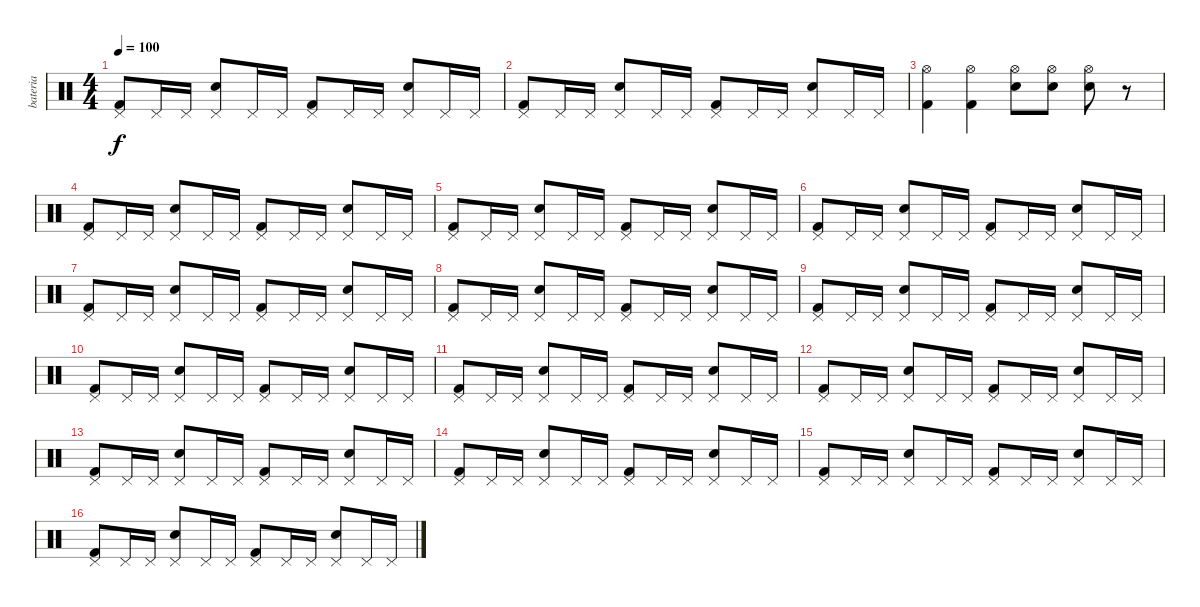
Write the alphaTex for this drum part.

\track ("bateria" "bateria") {instrument percussion}
\staff {score}
\articulation defaults
\ts (4 4)
\tempo 100
\clef neutral
\ks c
("Pedal Hi-Hat (hit)" "Kick (hit) 2").8{dy f} "Pedal Hi-Hat (hit)".16 "Pedal Hi-Hat (hit)".16 ("Pedal Hi-Hat (hit)" "Snare (hit) 2").8 "Pedal Hi-Hat (hit)".16 "Pedal Hi-Hat (hit)".16 ("Pedal Hi-Hat (hit)" "Kick (hit) 2").8 "Pedal Hi-Hat (hit)".16 "Pedal Hi-Hat (hit)".16 ("Pedal Hi-Hat (hit)" "Snare (hit) 2").8 "Pedal Hi-Hat (hit)".16 "Pedal Hi-Hat (hit)".16 |
("Pedal Hi-Hat (hit)" "Kick (hit) 2").8 "Pedal Hi-Hat (hit)".16 "Pedal Hi-Hat (hit)".16 ("Pedal Hi-Hat (hit)" "Snare (hit) 2").8 "Pedal Hi-Hat (hit)".16 "Pedal Hi-Hat (hit)".16 ("Pedal Hi-Hat (hit)" "Kick (hit) 2").8 "Pedal Hi-Hat (hit)".16 "Pedal Hi-Hat (hit)".16 ("Pedal Hi-Hat (hit)" "Snare (hit) 2").8 "Pedal Hi-Hat (hit)".16 "Pedal Hi-Hat (hit)".16 |
("Hi-Hat (open)" "Kick (hit) 2").4 ("Hi-Hat (open)" "Kick (hit) 2").4 ("Snare (hit) 2" "Hi-Hat (open)").8 ("Snare (hit) 2" "Hi-Hat (open)").8 ("Snare (hit) 2" "Hi-Hat (open)").8 r.8 |
\section ("" "")
("Pedal Hi-Hat (hit)" "Kick (hit) 2").8 "Pedal Hi-Hat (hit)".16 "Pedal Hi-Hat (hit)".16 ("Pedal Hi-Hat (hit)" "Snare (hit) 2").8 "Pedal Hi-Hat (hit)".16 "Pedal Hi-Hat (hit)".16 ("Pedal Hi-Hat (hit)" "Kick (hit) 2").8 "Pedal Hi-Hat (hit)".16 "Pedal Hi-Hat (hit)".16 ("Pedal Hi-Hat (hit)" "Snare (hit) 2").8 "Pedal Hi-Hat (hit)".16 "Pedal Hi-Hat (hit)".16 |
("Pedal Hi-Hat (hit)" "Kick (hit) 2").8 "Pedal Hi-Hat (hit)".16 "Pedal Hi-Hat (hit)".16 ("Pedal Hi-Hat (hit)" "Snare (hit) 2").8 "Pedal Hi-Hat (hit)".16 "Pedal Hi-Hat (hit)".16 ("Pedal Hi-Hat (hit)" "Kick (hit) 2").8 "Pedal Hi-Hat (hit)".16 "Pedal Hi-Hat (hit)".16 ("Pedal Hi-Hat (hit)" "Snare (hit) 2").8 "Pedal Hi-Hat (hit)".16 "Pedal Hi-Hat (hit)".16 |
("Pedal Hi-Hat (hit)" "Kick (hit) 2").8 "Pedal Hi-Hat (hit)".16 "Pedal Hi-Hat (hit)".16 ("Pedal Hi-Hat (hit)" "Snare (hit) 2").8 "Pedal Hi-Hat (hit)".16 "Pedal Hi-Hat (hit)".16 ("Pedal Hi-Hat (hit)" "Kick (hit) 2").8 "Pedal Hi-Hat (hit)".16 "Pedal Hi-Hat (hit)".16 ("Pedal Hi-Hat (hit)" "Snare (hit) 2").8 "Pedal Hi-Hat (hit)".16 "Pedal Hi-Hat (hit)".16 |
("Pedal Hi-Hat (hit)" "Kick (hit) 2").8 "Pedal Hi-Hat (hit)".16 "Pedal Hi-Hat (hit)".16 ("Pedal Hi-Hat (hit)" "Snare (hit) 2").8 "Pedal Hi-Hat (hit)".16 "Pedal Hi-Hat (hit)".16 ("Pedal Hi-Hat (hit)" "Kick (hit) 2").8 "Pedal Hi-Hat (hit)".16 "Pedal Hi-Hat (hit)".16 ("Pedal Hi-Hat (hit)" "Snare (hit) 2").8 "Pedal Hi-Hat (hit)".16 "Pedal Hi-Hat (hit)".16 |
("Pedal Hi-Hat (hit)" "Kick (hit) 2").8 "Pedal Hi-Hat (hit)".16 "Pedal Hi-Hat (hit)".16 ("Pedal Hi-Hat (hit)" "Snare (hit) 2").8 "Pedal Hi-Hat (hit)".16 "Pedal Hi-Hat (hit)".16 ("Pedal Hi-Hat (hit)" "Kick (hit) 2").8 "Pedal Hi-Hat (hit)".16 "Pedal Hi-Hat (hit)".16 ("Pedal Hi-Hat (hit)" "Snare (hit) 2").8 "Pedal Hi-Hat (hit)".16 "Pedal Hi-Hat (hit)".16 |
("Pedal Hi-Hat (hit)" "Kick (hit) 2").8 "Pedal Hi-Hat (hit)".16 "Pedal Hi-Hat (hit)".16 ("Pedal Hi-Hat (hit)" "Snare (hit) 2").8 "Pedal Hi-Hat (hit)".16 "Pedal Hi-Hat (hit)".16 ("Pedal Hi-Hat (hit)" "Kick (hit) 2").8 "Pedal Hi-Hat (hit)".16 "Pedal Hi-Hat (hit)".16 ("Pedal Hi-Hat (hit)" "Snare (hit) 2").8 "Pedal Hi-Hat (hit)".16 "Pedal Hi-Hat (hit)".16 |
("Pedal Hi-Hat (hit)" "Kick (hit) 2").8 "Pedal Hi-Hat (hit)".16 "Pedal Hi-Hat (hit)".16 ("Pedal Hi-Hat (hit)" "Snare (hit) 2").8 "Pedal Hi-Hat (hit)".16 "Pedal Hi-Hat (hit)".16 ("Pedal Hi-Hat (hit)" "Kick (hit) 2").8 "Pedal Hi-Hat (hit)".16 "Pedal Hi-Hat (hit)".16 ("Pedal Hi-Hat (hit)" "Snare (hit) 2").8 "Pedal Hi-Hat (hit)".16 "Pedal Hi-Hat (hit)".16 |
("Pedal Hi-Hat (hit)" "Kick (hit) 2").8 "Pedal Hi-Hat (hit)".16 "Pedal Hi-Hat (hit)".16 ("Pedal Hi-Hat (hit)" "Snare (hit) 2").8 "Pedal Hi-Hat (hit)".16 "Pedal Hi-Hat (hit)".16 ("Pedal Hi-Hat (hit)" "Kick (hit) 2").8 "Pedal Hi-Hat (hit)".16 "Pedal Hi-Hat (hit)".16 ("Pedal Hi-Hat (hit)" "Snare (hit) 2").8 "Pedal Hi-Hat (hit)".16 "Pedal Hi-Hat (hit)".16 |
("Pedal Hi-Hat (hit)" "Kick (hit) 2").8 "Pedal Hi-Hat (hit)".16 "Pedal Hi-Hat (hit)".16 ("Pedal Hi-Hat (hit)" "Snare (hit) 2").8 "Pedal Hi-Hat (hit)".16 "Pedal Hi-Hat (hit)".16 ("Pedal Hi-Hat (hit)" "Kick (hit) 2").8 "Pedal Hi-Hat (hit)".16 "Pedal Hi-Hat (hit)".16 ("Pedal Hi-Hat (hit)" "Snare (hit) 2").8 "Pedal Hi-Hat (hit)".16 "Pedal Hi-Hat (hit)".16 |
("Pedal Hi-Hat (hit)" "Kick (hit) 2").8 "Pedal Hi-Hat (hit)".16 "Pedal Hi-Hat (hit)".16 ("Pedal Hi-Hat (hit)" "Snare (hit) 2").8 "Pedal Hi-Hat (hit)".16 "Pedal Hi-Hat (hit)".16 ("Pedal Hi-Hat (hit)" "Kick (hit) 2").8 "Pedal Hi-Hat (hit)".16 "Pedal Hi-Hat (hit)".16 ("Pedal Hi-Hat (hit)" "Snare (hit) 2").8 "Pedal Hi-Hat (hit)".16 "Pedal Hi-Hat (hit)".16 |
\section ("" "")
("Pedal Hi-Hat (hit)" "Kick (hit) 2").8 "Pedal Hi-Hat (hit)".16 "Pedal Hi-Hat (hit)".16 ("Pedal Hi-Hat (hit)" "Snare (hit) 2").8 "Pedal Hi-Hat (hit)".16 "Pedal Hi-Hat (hit)".16 ("Pedal Hi-Hat (hit)" "Kick (hit) 2").8 "Pedal Hi-Hat (hit)".16 "Pedal Hi-Hat (hit)".16 ("Pedal Hi-Hat (hit)" "Snare (hit) 2").8 "Pedal Hi-Hat (hit)".16 "Pedal Hi-Hat (hit)".16 |
("Pedal Hi-Hat (hit)" "Kick (hit) 2").8 "Pedal Hi-Hat (hit)".16 "Pedal Hi-Hat (hit)".16 ("Pedal Hi-Hat (hit)" "Snare (hit) 2").8 "Pedal Hi-Hat (hit)".16 "Pedal Hi-Hat (hit)".16 ("Pedal Hi-Hat (hit)" "Kick (hit) 2").8 "Pedal Hi-Hat (hit)".16 "Pedal Hi-Hat (hit)".16 ("Pedal Hi-Hat (hit)" "Snare (hit) 2").8 "Pedal Hi-Hat (hit)".16 "Pedal Hi-Hat (hit)".16 |
("Pedal Hi-Hat (hit)" "Kick (hit) 2").8 "Pedal Hi-Hat (hit)".16 "Pedal Hi-Hat (hit)".16 ("Pedal Hi-Hat (hit)" "Snare (hit) 2").8 "Pedal Hi-Hat (hit)".16 "Pedal Hi-Hat (hit)".16 ("Pedal Hi-Hat (hit)" "Kick (hit) 2").8 "Pedal Hi-Hat (hit)".16 "Pedal Hi-Hat (hit)".16 ("Pedal Hi-Hat (hit)" "Snare (hit) 2").8 "Pedal Hi-Hat (hit)".16 "Pedal Hi-Hat (hit)".16
